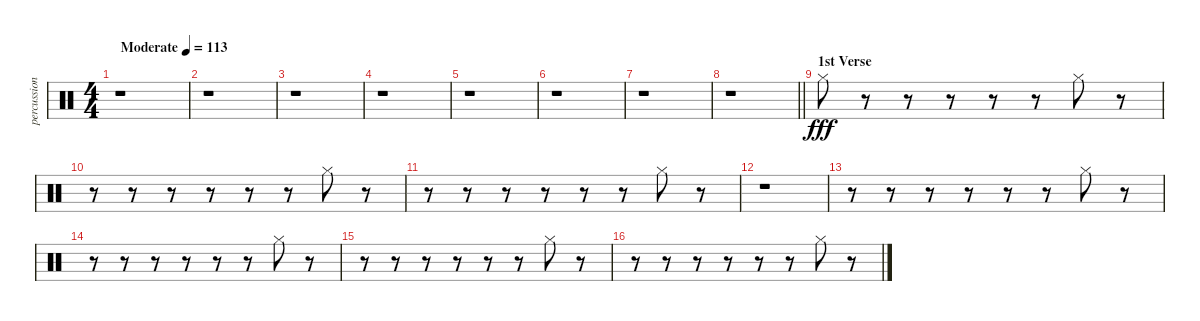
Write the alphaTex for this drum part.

\track ("percussion" "percussion") {instrument percussion}
\staff {score}
\articulation defaults
\ts (4 4)
\tempo (113 "Moderate")
\clef neutral
\ks c
r.1{dy fff} |
r.1 |
r.1 |
r.1 |
r.1 |
r.1 |
r.1 |
\barLineRight lightlight
r.1 |
\section ("" "1st Verse")
"Hi-Hat (closed)".8 r.8 r.8 r.8 r.8 r.8 "Hi-Hat (closed)".8 r.8 |
r.8 r.8 r.8 r.8 r.8 r.8 "Hi-Hat (closed)".8 r.8 |
r.8 r.8 r.8 r.8 r.8 r.8 "Hi-Hat (closed)".8 r.8 |
r.1 |
r.8 r.8 r.8 r.8 r.8 r.8 "Hi-Hat (closed)".8 r.8 |
r.8 r.8 r.8 r.8 r.8 r.8 "Hi-Hat (closed)".8 r.8 |
r.8 r.8 r.8 r.8 r.8 r.8 "Hi-Hat (closed)".8 r.8 |
r.8 r.8 r.8 r.8 r.8 r.8 "Hi-Hat (closed)".8 r.8
